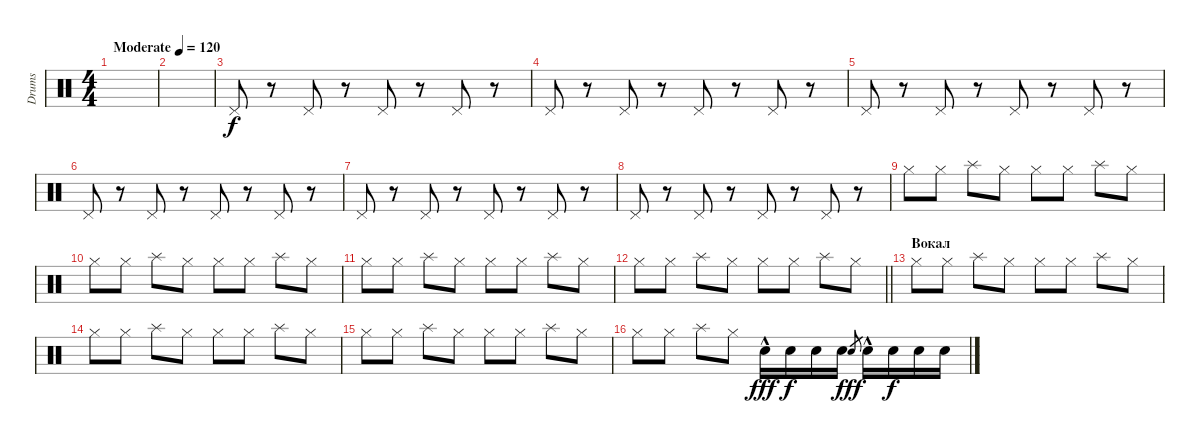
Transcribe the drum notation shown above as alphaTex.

\track ("Drums" "Drums") {instrument percussion}
\staff {score}
\articulation defaults
\ts (4 4)
\tempo (120 "Moderate")
\clef neutral
\ks c
|
|
"Pedal Hi-Hat (hit)".8 r.8 "Pedal Hi-Hat (hit)".8 r.8 "Pedal Hi-Hat (hit)".8 r.8 "Pedal Hi-Hat (hit)".8 r.8 |
"Pedal Hi-Hat (hit)".8 r.8 "Pedal Hi-Hat (hit)".8 r.8 "Pedal Hi-Hat (hit)".8 r.8 "Pedal Hi-Hat (hit)".8 r.8 |
"Pedal Hi-Hat (hit)".8 r.8 "Pedal Hi-Hat (hit)".8 r.8 "Pedal Hi-Hat (hit)".8 r.8 "Pedal Hi-Hat (hit)".8 r.8 |
"Pedal Hi-Hat (hit)".8 r.8 "Pedal Hi-Hat (hit)".8 r.8 "Pedal Hi-Hat (hit)".8 r.8 "Pedal Hi-Hat (hit)".8 r.8 |
"Pedal Hi-Hat (hit)".8 r.8 "Pedal Hi-Hat (hit)".8 r.8 "Pedal Hi-Hat (hit)".8 r.8 "Pedal Hi-Hat (hit)".8 r.8 |
"Pedal Hi-Hat (hit)".8 r.8 "Pedal Hi-Hat (hit)".8 r.8 "Pedal Hi-Hat (hit)".8 r.8 "Pedal Hi-Hat (hit)".8 r.8 |
"Hi-Hat (closed)".8 "Hi-Hat (closed)".8 "Splash (hit)".8 "Hi-Hat (closed)".8 "Hi-Hat (closed)".8 "Hi-Hat (closed)".8 "Splash (hit)".8 "Hi-Hat (closed)".8 |
"Hi-Hat (closed)".8 "Hi-Hat (closed)".8 "Splash (hit)".8 "Hi-Hat (closed)".8 "Hi-Hat (closed)".8 "Hi-Hat (closed)".8 "Splash (hit)".8 "Hi-Hat (closed)".8 |
"Hi-Hat (closed)".8 "Hi-Hat (closed)".8 "Splash (hit)".8 "Hi-Hat (closed)".8 "Hi-Hat (closed)".8 "Hi-Hat (closed)".8 "Splash (hit)".8 "Hi-Hat (closed)".8 |
\barLineRight lightlight "Hi-Hat (closed)".8 "Hi-Hat (closed)".8 "Splash (hit)".8 "Hi-Hat (closed)".8 "Hi-Hat (closed)".8 "Hi-Hat (closed)".8 "Splash (hit)".8 "Hi-Hat (closed)".8
|
\section ("" "Вокал")
"Hi-Hat (closed)".8 "Hi-Hat (closed)".8 "Splash (hit)".8 "Hi-Hat (closed)".8 "Hi-Hat (closed)".8 "Hi-Hat (closed)".8 "Splash (hit)".8 "Hi-Hat (closed)".8 |
"Hi-Hat (closed)".8 "Hi-Hat (closed)".8 "Splash (hit)".8 "Hi-Hat (closed)".8 "Hi-Hat (closed)".8 "Hi-Hat (closed)".8 "Splash (hit)".8 "Hi-Hat (closed)".8 |
"Hi-Hat (closed)".8 "Hi-Hat (closed)".8 "Splash (hit)".8 "Hi-Hat (closed)".8 "Hi-Hat (closed)".8 "Hi-Hat (closed)".8 "Splash (hit)".8 "Hi-Hat (closed)".8 |
"Hi-Hat (closed)".8 "Hi-Hat (closed)".8 "Splash (hit)".8 "Hi-Hat (closed)".8 "Snare (hit) 2"{hac}.16{dy fff} "Snare (hit) 2".16{dy f} "Snare (hit) 2".16 "Snare (hit) 2".16 "Electric Snare (hit)".8{gr dy fff} "Snare (hit) 2"{hac}.16 "Snare (hit) 2".16{dy f} "Snare (hit) 2".16 "Snare (hit) 2".16
